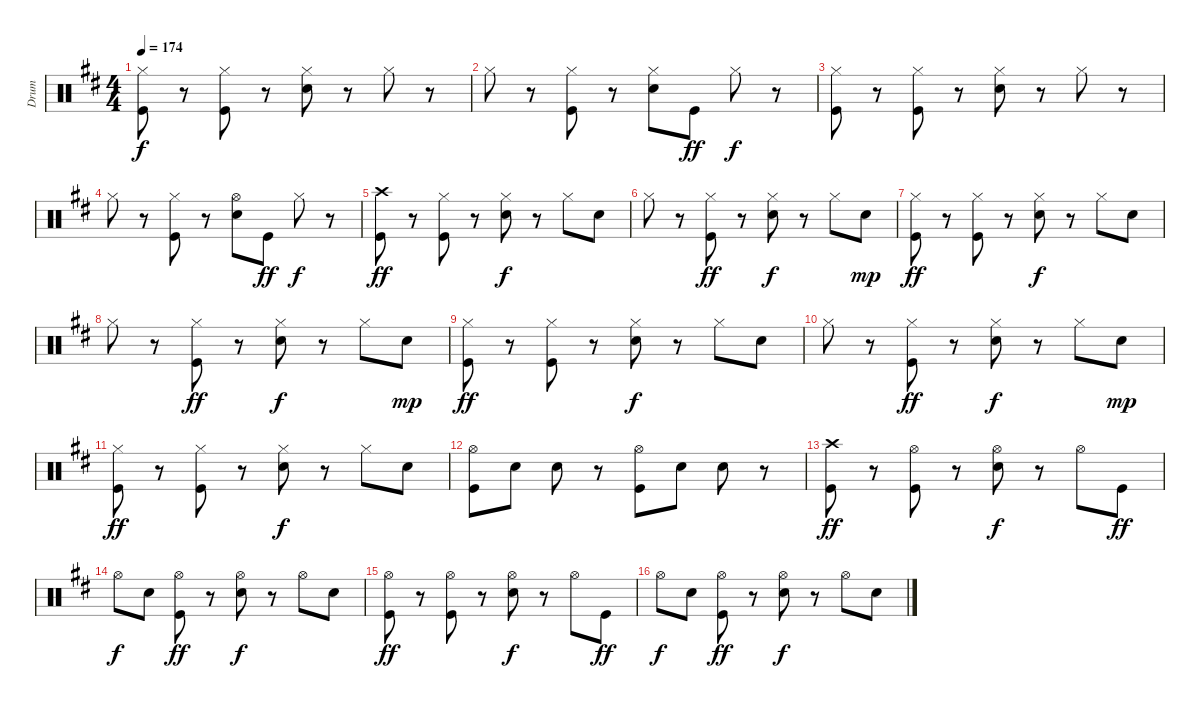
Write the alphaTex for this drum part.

\track ("Drum" "Drum") {instrument percussion}
\staff {score}
\articulation defaults
\ts (4 4)
\tempo 174
\clef neutral
\ks d
("Hi-Hat (closed)" "Kick (hit)").8{dy f} r.8 ("Hi-Hat (closed)" "Kick (hit)").8 r.8 ("Hi-Hat (closed)" "Snare (hit) 2").8 r.8 "Hi-Hat (closed)".8 r.8 |
"Hi-Hat (closed)".8 r.8 ("Hi-Hat (closed)" "Kick (hit)").8 r.8 ("Hi-Hat (closed)" "Snare (hit) 2").8 "Kick (hit)".8{dy ff} "Hi-Hat (closed)".8{dy f} r.8 |
("Hi-Hat (closed)" "Kick (hit)").8 r.8 ("Hi-Hat (closed)" "Kick (hit)").8 r.8 ("Hi-Hat (closed)" "Snare (hit) 2").8 r.8 "Hi-Hat (closed)".8 r.8 |
"Hi-Hat (closed)".8 r.8 ("Hi-Hat (closed)" "Kick (hit)").8 r.8 ("Hi-Hat (open)" "Snare (hit) 2").8 "Kick (hit)".8{dy ff} "Hi-Hat (closed)".8{dy f} r.8 |
("Crash high (hit)" "Kick (hit)").8{dy ff} r.8 ("Hi-Hat (closed)" "Kick (hit)").8 r.8 ("Hi-Hat (closed)" "Snare (hit) 2").8{dy f} r.8 "Hi-Hat (closed)".8 "Snare (hit) 2".8 |
"Hi-Hat (closed)".8 r.8 ("Hi-Hat (closed)" "Kick (hit)").8{dy ff} r.8 ("Hi-Hat (closed)" "Snare (hit) 2").8{dy f} r.8 "Hi-Hat (closed)".8 "Snare (hit) 2".8{dy mp} |
("Hi-Hat (closed)" "Kick (hit)").8{dy ff} r.8 ("Hi-Hat (closed)" "Kick (hit)").8 r.8 ("Hi-Hat (closed)" "Snare (hit) 2").8{dy f} r.8 "Hi-Hat (closed)".8 "Snare (hit) 2".8 |
"Hi-Hat (closed)".8 r.8 ("Hi-Hat (closed)" "Kick (hit)").8{dy ff} r.8 ("Hi-Hat (closed)" "Snare (hit) 2").8{dy f} r.8 "Hi-Hat (closed)".8 "Snare (hit) 2".8{dy mp} |
("Hi-Hat (closed)" "Kick (hit)").8{dy ff} r.8 ("Hi-Hat (closed)" "Kick (hit)").8 r.8 ("Hi-Hat (closed)" "Snare (hit) 2").8{dy f} r.8 "Hi-Hat (closed)".8 "Snare (hit) 2".8 |
"Hi-Hat (closed)".8 r.8 ("Hi-Hat (closed)" "Kick (hit)").8{dy ff} r.8 ("Hi-Hat (closed)" "Snare (hit) 2").8{dy f} r.8 "Hi-Hat (closed)".8 "Snare (hit) 2".8{dy mp} |
("Hi-Hat (closed)" "Kick (hit)").8{dy ff} r.8 ("Hi-Hat (closed)" "Kick (hit)").8 r.8 ("Hi-Hat (closed)" "Snare (hit) 2").8{dy f} r.8 "Hi-Hat (closed)".8 "Snare (hit) 2".8 |
("Hi-Hat (open)" "Kick (hit)").8 "Snare (hit) 2".8 "Snare (hit) 2".8 r.8 ("Hi-Hat (open)" "Kick (hit)").8 "Snare (hit) 2".8 "Snare (hit) 2".8 r.8 |
("Crash high (hit)" "Kick (hit)").8{dy ff} r.8 ("Hi-Hat (open)" "Kick (hit)").8 r.8 ("Hi-Hat (open)" "Snare (hit) 2").8{dy f} r.8 "Hi-Hat (open)".8 "Kick (hit)".8{dy ff} |
"Hi-Hat (open)".8{dy f} "Snare (hit) 2".8 ("Hi-Hat (open)" "Kick (hit)").8{dy ff} r.8 ("Hi-Hat (open)" "Snare (hit) 2").8{dy f} r.8 "Hi-Hat (open)".8 "Snare (hit) 2".8 |
("Hi-Hat (open)" "Kick (hit)").8{dy ff} r.8 ("Hi-Hat (open)" "Kick (hit)").8 r.8 ("Hi-Hat (open)" "Snare (hit) 2").8{dy f} r.8 "Hi-Hat (open)".8 "Kick (hit)".8{dy ff} |
"Hi-Hat (open)".8{dy f} "Snare (hit) 2".8 ("Hi-Hat (open)" "Kick (hit)").8{dy ff} r.8 ("Hi-Hat (open)" "Snare (hit) 2").8{dy f} r.8 "Hi-Hat (open)".8 "Snare (hit) 2".8
